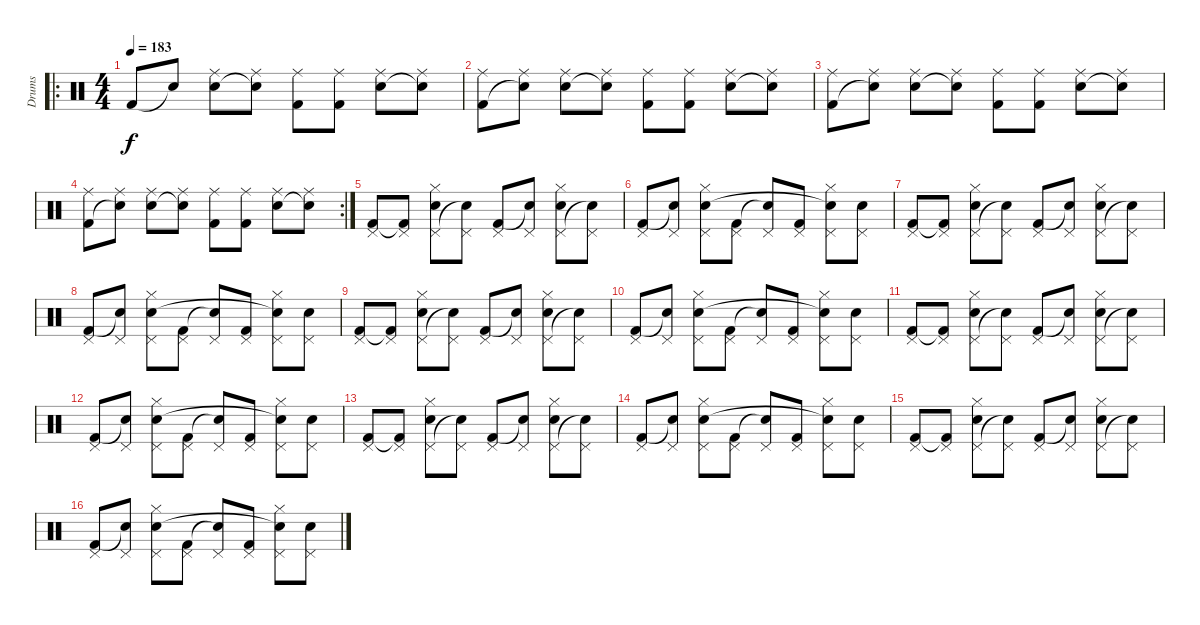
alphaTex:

\track ("Drums" "Drums") {instrument percussion}
\staff {score}
\articulation defaults
\ro
\ts (4 4)
\tempo 183
\clef neutral
\ks c "Kick (hit) 2".8{dy f} "Snare (hit)"{t}.8
("Ride (middle)" "Snare (hit) 2").8 ("Ride (middle)" "Snare (hit)"{t}).8 ("Ride (middle)" "Kick (hit) 2").8 ("Ride (middle)" "Kick (hit) 2").8 ("Ride (middle)" "Snare (hit) 2").8 ("Ride (middle)" "Snare (hit) 2"{t}).8 |
("Ride (middle)" "Kick (hit) 2").8 ("Ride (middle)" "Snare (hit)"{t}).8 ("Ride (middle)" "Snare (hit) 2").8 ("Ride (middle)" "Snare (hit)"{t}).8 ("Ride (middle)" "Kick (hit) 2").8 ("Ride (middle)" "Kick (hit) 2").8 ("Ride (middle)" "Snare (hit) 2").8 ("Ride (middle)" "Snare (hit) 2"{t}).8 |
("Ride (middle)" "Kick (hit) 2").8 ("Ride (middle)" "Snare (hit)"{t}).8 ("Ride (middle)" "Snare (hit) 2").8 ("Ride (middle)" "Snare (hit)"{t}).8 ("Ride (middle)" "Kick (hit) 2").8 ("Ride (middle)" "Kick (hit) 2").8 ("Ride (middle)" "Snare (hit) 2").8 ("Ride (middle)" "Snare (hit) 2"{t}).8 |
\rc 2
("Ride (middle)" "Kick (hit) 2").8 ("Ride (middle)" "Snare (hit)"{t}).8 ("Ride (middle)" "Snare (hit) 2").8 ("Ride (middle)" "Snare (hit)"{t}).8 ("Ride (middle)" "Kick (hit) 2").8 ("Ride (middle)" "Kick (hit) 2").8 ("Ride (middle)" "Snare (hit) 2").8 ("Ride (middle)" "Snare (hit) 2"{t}).8 |
("Pedal Hi-Hat (hit)" "Kick (hit) 2").8 ("Pedal Hi-Hat (hit)" "Kick (hit) 2"{t}).8 ("Hi-Hat (closed)" "Pedal Hi-Hat (hit)" "Snare (hit) 2").8 ("Pedal Hi-Hat (hit)" "Snare (hit)"{t}).8 ("Pedal Hi-Hat (hit)" "Kick (hit) 2").8 ("Pedal Hi-Hat (hit)" "Snare (hit)"{t}).8 ("Hi-Hat (closed)" "Pedal Hi-Hat (hit)" "Snare (hit) 2").8 ("Pedal Hi-Hat (hit)" "Snare (hit)"{t}).8 |
("Pedal Hi-Hat (hit)" "Kick (hit) 2").8 ("Pedal Hi-Hat (hit)" "Snare (hit)"{t}).8 ("Hi-Hat (closed)" "Pedal Hi-Hat (hit)" "Snare (hit) 2").8 ("Pedal Hi-Hat (hit)" "Kick (hit) 2").8 ("Pedal Hi-Hat (hit)" "Snare (hit)"{t}).8 ("Pedal Hi-Hat (hit)" "Kick (hit) 2").8 ("Hi-Hat (closed)" "Pedal Hi-Hat (hit)" "Snare (hit)"{t}).8 ("Pedal Hi-Hat (hit)" "Snare (hit) 2").8 |
("Pedal Hi-Hat (hit)" "Kick (hit) 2").8 ("Pedal Hi-Hat (hit)" "Kick (hit) 2"{t}).8 ("Hi-Hat (closed)" "Pedal Hi-Hat (hit)" "Snare (hit) 2").8 ("Pedal Hi-Hat (hit)" "Snare (hit)"{t}).8 ("Pedal Hi-Hat (hit)" "Kick (hit) 2").8 ("Pedal Hi-Hat (hit)" "Snare (hit)"{t}).8 ("Hi-Hat (closed)" "Pedal Hi-Hat (hit)" "Snare (hit) 2").8 ("Pedal Hi-Hat (hit)" "Snare (hit)"{t}).8 |
("Pedal Hi-Hat (hit)" "Kick (hit) 2").8 ("Pedal Hi-Hat (hit)" "Snare (hit)"{t}).8 ("Hi-Hat (closed)" "Pedal Hi-Hat (hit)" "Snare (hit) 2").8 ("Pedal Hi-Hat (hit)" "Kick (hit) 2").8 ("Pedal Hi-Hat (hit)" "Snare (hit)"{t}).8 ("Pedal Hi-Hat (hit)" "Kick (hit) 2").8 ("Hi-Hat (closed)" "Pedal Hi-Hat (hit)" "Snare (hit)"{t}).8 ("Pedal Hi-Hat (hit)" "Snare (hit) 2").8 |
("Pedal Hi-Hat (hit)" "Kick (hit) 2").8 ("Pedal Hi-Hat (hit)" "Kick (hit) 2"{t}).8 ("Hi-Hat (closed)" "Pedal Hi-Hat (hit)" "Snare (hit) 2").8 ("Pedal Hi-Hat (hit)" "Snare (hit)"{t}).8 ("Pedal Hi-Hat (hit)" "Kick (hit) 2").8 ("Pedal Hi-Hat (hit)" "Snare (hit)"{t}).8 ("Hi-Hat (closed)" "Pedal Hi-Hat (hit)" "Snare (hit) 2").8 ("Pedal Hi-Hat (hit)" "Snare (hit)"{t}).8 |
("Pedal Hi-Hat (hit)" "Kick (hit) 2").8 ("Pedal Hi-Hat (hit)" "Snare (hit)"{t}).8 ("Hi-Hat (closed)" "Pedal Hi-Hat (hit)" "Snare (hit) 2").8 ("Pedal Hi-Hat (hit)" "Kick (hit) 2").8 ("Pedal Hi-Hat (hit)" "Snare (hit)"{t}).8 ("Pedal Hi-Hat (hit)" "Kick (hit) 2").8 ("Hi-Hat (closed)" "Pedal Hi-Hat (hit)" "Snare (hit)"{t}).8 ("Pedal Hi-Hat (hit)" "Snare (hit) 2").8 |
("Pedal Hi-Hat (hit)" "Kick (hit) 2").8 ("Pedal Hi-Hat (hit)" "Kick (hit) 2"{t}).8 ("Hi-Hat (closed)" "Pedal Hi-Hat (hit)" "Snare (hit) 2").8 ("Pedal Hi-Hat (hit)" "Snare (hit)"{t}).8 ("Pedal Hi-Hat (hit)" "Kick (hit) 2").8 ("Pedal Hi-Hat (hit)" "Snare (hit)"{t}).8 ("Hi-Hat (closed)" "Pedal Hi-Hat (hit)" "Snare (hit) 2").8 ("Pedal Hi-Hat (hit)" "Snare (hit)"{t}).8 |
("Pedal Hi-Hat (hit)" "Kick (hit) 2").8 ("Pedal Hi-Hat (hit)" "Snare (hit)"{t}).8 ("Hi-Hat (closed)" "Pedal Hi-Hat (hit)" "Snare (hit) 2").8 ("Pedal Hi-Hat (hit)" "Kick (hit) 2").8 ("Pedal Hi-Hat (hit)" "Snare (hit)"{t}).8 ("Pedal Hi-Hat (hit)" "Kick (hit) 2").8 ("Hi-Hat (closed)" "Pedal Hi-Hat (hit)" "Snare (hit)"{t}).8 ("Pedal Hi-Hat (hit)" "Snare (hit) 2").8 |
("Pedal Hi-Hat (hit)" "Kick (hit) 2").8 ("Pedal Hi-Hat (hit)" "Kick (hit) 2"{t}).8 ("Hi-Hat (closed)" "Pedal Hi-Hat (hit)" "Snare (hit) 2").8 ("Pedal Hi-Hat (hit)" "Snare (hit)"{t}).8 ("Pedal Hi-Hat (hit)" "Kick (hit) 2").8 ("Pedal Hi-Hat (hit)" "Snare (hit)"{t}).8 ("Hi-Hat (closed)" "Pedal Hi-Hat (hit)" "Snare (hit) 2").8 ("Pedal Hi-Hat (hit)" "Snare (hit)"{t}).8 |
("Pedal Hi-Hat (hit)" "Kick (hit) 2").8 ("Pedal Hi-Hat (hit)" "Snare (hit)"{t}).8 ("Hi-Hat (closed)" "Pedal Hi-Hat (hit)" "Snare (hit) 2").8 ("Pedal Hi-Hat (hit)" "Kick (hit) 2").8 ("Pedal Hi-Hat (hit)" "Snare (hit)"{t}).8 ("Pedal Hi-Hat (hit)" "Kick (hit) 2").8 ("Hi-Hat (closed)" "Pedal Hi-Hat (hit)" "Snare (hit)"{t}).8 ("Pedal Hi-Hat (hit)" "Snare (hit) 2").8 |
("Pedal Hi-Hat (hit)" "Kick (hit) 2").8 ("Pedal Hi-Hat (hit)" "Kick (hit) 2"{t}).8 ("Hi-Hat (closed)" "Pedal Hi-Hat (hit)" "Snare (hit) 2").8 ("Pedal Hi-Hat (hit)" "Snare (hit)"{t}).8 ("Pedal Hi-Hat (hit)" "Kick (hit) 2").8 ("Pedal Hi-Hat (hit)" "Snare (hit)"{t}).8 ("Hi-Hat (closed)" "Pedal Hi-Hat (hit)" "Snare (hit) 2").8 ("Pedal Hi-Hat (hit)" "Snare (hit)"{t}).8 |
("Pedal Hi-Hat (hit)" "Kick (hit) 2").8 ("Pedal Hi-Hat (hit)" "Snare (hit)"{t}).8 ("Hi-Hat (closed)" "Pedal Hi-Hat (hit)" "Snare (hit) 2").8 ("Pedal Hi-Hat (hit)" "Kick (hit) 2").8 ("Pedal Hi-Hat (hit)" "Snare (hit)"{t}).8 ("Pedal Hi-Hat (hit)" "Kick (hit) 2").8 ("Hi-Hat (closed)" "Pedal Hi-Hat (hit)" "Snare (hit)"{t}).8 ("Pedal Hi-Hat (hit)" "Snare (hit) 2").8
